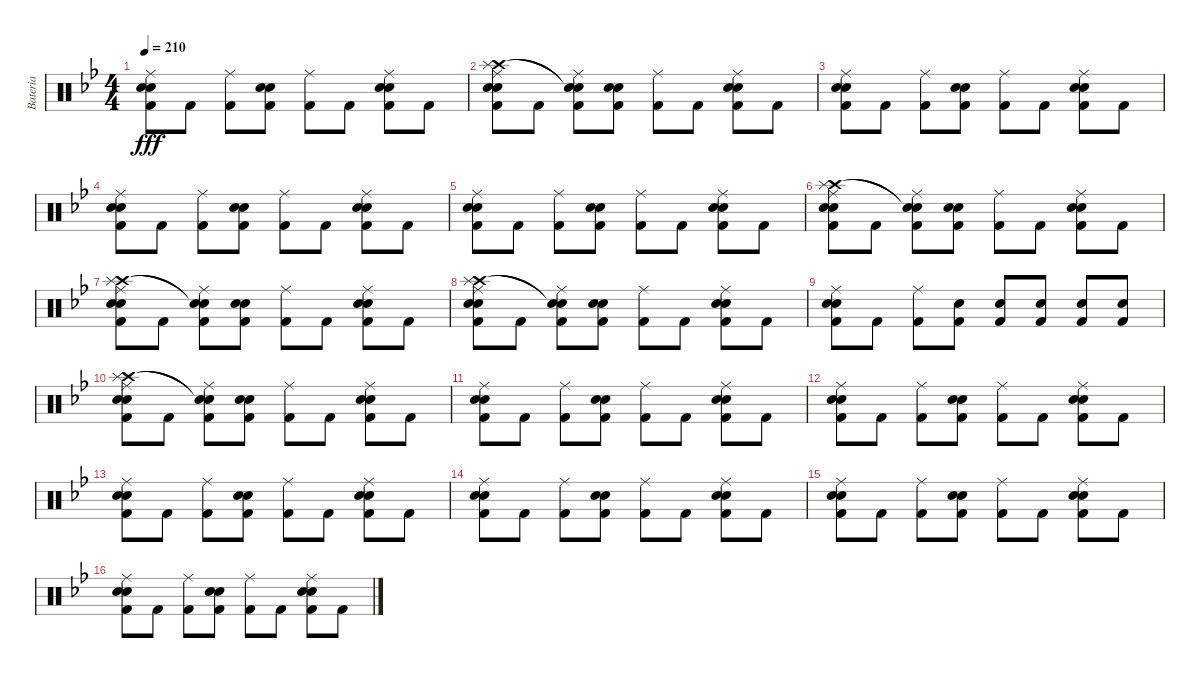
\track ("Bateria" "Bateria") {instrument percussion}
\staff {score}
\articulation defaults
\ts (4 4)
\tempo 210
\clef neutral
\ks gminor
("Ride (middle)" "Snare (hit) 2" "Kick (hit) 2" "Electric Snare (hit)").8{dy fff} "Kick (hit) 2".8 ("Ride (middle)" "Kick (hit) 2").8 ("Snare (hit) 2" "Kick (hit) 2" "Electric Snare (hit)").8 ("Ride (middle)" "Kick (hit) 2").8 "Kick (hit) 2".8 ("Ride (middle)" "Snare (hit) 2" "Kick (hit) 2" "Electric Snare (hit)").8 "Kick (hit) 2".8 |
("Ride (middle)" "Crash high (hit)" "Splash (hit)" "Snare (hit) 2" "Kick (hit) 2" "Electric Snare (hit)").8 "Kick (hit) 2".8 ("Ride (middle)" "Snare (hit)"{t} "Snare (hit)"{t} "Kick (hit) 2").8 ("Snare (hit) 2" "Kick (hit) 2" "Electric Snare (hit)").8 ("Ride (middle)" "Kick (hit) 2").8 "Kick (hit) 2".8 ("Ride (middle)" "Snare (hit) 2" "Kick (hit) 2" "Electric Snare (hit)").8 "Kick (hit) 2".8 |
("Ride (middle)" "Snare (hit) 2" "Kick (hit) 2" "Electric Snare (hit)").8 "Kick (hit) 2".8 ("Ride (middle)" "Kick (hit) 2").8 ("Snare (hit) 2" "Kick (hit) 2" "Electric Snare (hit)").8 ("Ride (middle)" "Kick (hit) 2").8 "Kick (hit) 2".8 ("Ride (middle)" "Snare (hit) 2" "Kick (hit) 2" "Electric Snare (hit)").8 "Kick (hit) 2".8 |
("Ride (middle)" "Snare (hit) 2" "Kick (hit) 2" "Electric Snare (hit)").8 "Kick (hit) 2".8 ("Ride (middle)" "Kick (hit) 2").8 ("Snare (hit) 2" "Kick (hit) 2" "Electric Snare (hit)").8 ("Ride (middle)" "Kick (hit) 2").8 "Kick (hit) 2".8 ("Ride (middle)" "Snare (hit) 2" "Kick (hit) 2" "Electric Snare (hit)").8 "Kick (hit) 2".8 |
("Ride (middle)" "Snare (hit) 2" "Kick (hit) 2" "Electric Snare (hit)").8 "Kick (hit) 2".8 ("Ride (middle)" "Kick (hit) 2").8 ("Snare (hit) 2" "Kick (hit) 2" "Electric Snare (hit)").8 ("Ride (middle)" "Kick (hit) 2").8 "Kick (hit) 2".8 ("Ride (middle)" "Snare (hit) 2" "Kick (hit) 2" "Electric Snare (hit)").8 "Kick (hit) 2".8 |
("Ride (middle)" "Crash high (hit)" "Splash (hit)" "Snare (hit) 2" "Kick (hit) 2" "Electric Snare (hit)").8 "Kick (hit) 2".8 ("Ride (middle)" "Snare (hit)"{t} "Snare (hit)"{t} "Kick (hit) 2").8 ("Snare (hit) 2" "Kick (hit) 2" "Electric Snare (hit)").8 ("Ride (middle)" "Kick (hit) 2").8 "Kick (hit) 2".8 ("Ride (middle)" "Snare (hit) 2" "Kick (hit) 2" "Electric Snare (hit)").8 "Kick (hit) 2".8 |
("Ride (middle)" "Crash high (hit)" "Splash (hit)" "Snare (hit) 2" "Kick (hit) 2" "Electric Snare (hit)").8 "Kick (hit) 2".8 ("Ride (middle)" "Snare (hit)"{t} "Snare (hit)"{t} "Kick (hit) 2").8 ("Snare (hit) 2" "Kick (hit) 2" "Electric Snare (hit)").8 ("Ride (middle)" "Kick (hit) 2").8 "Kick (hit) 2".8 ("Ride (middle)" "Snare (hit) 2" "Kick (hit) 2" "Electric Snare (hit)").8 "Kick (hit) 2".8 |
("Ride (middle)" "Crash high (hit)" "Splash (hit)" "Snare (hit) 2" "Kick (hit) 2" "Electric Snare (hit)").8 "Kick (hit) 2".8 ("Ride (middle)" "Snare (hit)"{t} "Snare (hit)"{t} "Kick (hit) 2").8 ("Snare (hit) 2" "Kick (hit) 2" "Electric Snare (hit)").8 ("Ride (middle)" "Kick (hit) 2").8 "Kick (hit) 2".8 ("Ride (middle)" "Snare (hit) 2" "Kick (hit) 2" "Electric Snare (hit)").8 "Kick (hit) 2".8 |
("Ride (middle)" "Snare (hit) 2" "Kick (hit) 2" "Electric Snare (hit)").8 "Kick (hit) 2".8 ("Ride (middle)" "Kick (hit) 2").8 ("Snare (hit) 2" "Kick (hit) 2").8 ("Snare (hit) 2" "Kick (hit) 2").8 ("Snare (hit) 2" "Kick (hit) 2").8 ("Snare (hit) 2" "Kick (hit) 2").8 ("Snare (hit) 2" "Kick (hit) 2").8 |
("Ride (middle)" "Crash high (hit)" "Splash (hit)" "Snare (hit) 2" "Electric Snare (hit)" "Kick (hit) 2").8 "Kick (hit) 2".8 ("Ride (middle)" "Snare (hit)"{t} "Snare (hit)"{t} "Kick (hit) 2").8 ("Snare (hit) 2" "Electric Snare (hit)" "Kick (hit) 2").8 ("Ride (middle)" "Kick (hit) 2").8 "Kick (hit) 2".8 ("Ride (middle)" "Snare (hit) 2" "Electric Snare (hit)" "Kick (hit) 2").8 "Kick (hit) 2".8 |
("Ride (middle)" "Snare (hit) 2" "Kick (hit) 2" "Electric Snare (hit)").8 "Kick (hit) 2".8 ("Ride (middle)" "Kick (hit) 2").8 ("Snare (hit) 2" "Kick (hit) 2" "Electric Snare (hit)").8 ("Ride (middle)" "Kick (hit) 2").8 "Kick (hit) 2".8 ("Ride (middle)" "Snare (hit) 2" "Kick (hit) 2" "Electric Snare (hit)").8 "Kick (hit) 2".8 |
("Ride (middle)" "Snare (hit) 2" "Kick (hit) 2" "Electric Snare (hit)").8 "Kick (hit) 2".8 ("Ride (middle)" "Kick (hit) 2").8 ("Snare (hit) 2" "Kick (hit) 2" "Electric Snare (hit)").8 ("Ride (middle)" "Kick (hit) 2").8 "Kick (hit) 2".8 ("Ride (middle)" "Snare (hit) 2" "Kick (hit) 2" "Electric Snare (hit)").8 "Kick (hit) 2".8 |
("Ride (middle)" "Snare (hit) 2" "Kick (hit) 2" "Electric Snare (hit)").8 "Kick (hit) 2".8 ("Ride (middle)" "Kick (hit) 2").8 ("Snare (hit) 2" "Kick (hit) 2" "Electric Snare (hit)").8 ("Ride (middle)" "Kick (hit) 2").8 "Kick (hit) 2".8 ("Ride (middle)" "Snare (hit) 2" "Kick (hit) 2" "Electric Snare (hit)").8 "Kick (hit) 2".8 |
("Ride (middle)" "Snare (hit) 2" "Kick (hit) 2" "Electric Snare (hit)").8 "Kick (hit) 2".8 ("Ride (middle)" "Kick (hit) 2").8 ("Snare (hit) 2" "Kick (hit) 2" "Electric Snare (hit)").8 ("Ride (middle)" "Kick (hit) 2").8 "Kick (hit) 2".8 ("Ride (middle)" "Snare (hit) 2" "Kick (hit) 2" "Electric Snare (hit)").8 "Kick (hit) 2".8 |
("Ride (middle)" "Snare (hit) 2" "Kick (hit) 2" "Electric Snare (hit)").8 "Kick (hit) 2".8 ("Ride (middle)" "Kick (hit) 2").8 ("Snare (hit) 2" "Kick (hit) 2" "Electric Snare (hit)").8 ("Ride (middle)" "Kick (hit) 2").8 "Kick (hit) 2".8 ("Ride (middle)" "Snare (hit) 2" "Kick (hit) 2" "Electric Snare (hit)").8 "Kick (hit) 2".8 |
("Ride (middle)" "Snare (hit) 2" "Kick (hit) 2" "Electric Snare (hit)").8 "Kick (hit) 2".8 ("Ride (middle)" "Kick (hit) 2").8 ("Snare (hit) 2" "Kick (hit) 2" "Electric Snare (hit)").8 ("Ride (middle)" "Kick (hit) 2").8 "Kick (hit) 2".8 ("Ride (middle)" "Snare (hit) 2" "Kick (hit) 2" "Electric Snare (hit)").8 "Kick (hit) 2".8
